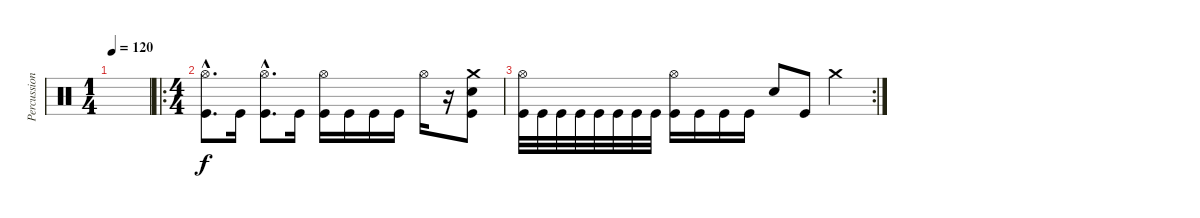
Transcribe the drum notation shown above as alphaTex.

\track ("Percussion" "Percussion") {instrument percussion}
\staff {score}
\articulation defaults
\ts (1 4)
\tempo 120
\clef neutral
\ks c
|
\ro
\ts (4 4)
("Hi-Hat (open)"{hac} "Kick (hit)"{hac}).8{d} "Kick (hit)".16 ("Hi-Hat (open)"{hac} "Kick (hit)"{hac}).8{d} "Kick (hit)".16 ("Hi-Hat (open)" "Kick (hit)").16 "Kick (hit)".16 "Kick (hit)".16 "Kick (hit)".16 "Hi-Hat (open)".16 r.16 ("Crash medium (hit)" "Snare (hit) 2" "Kick (hit)").8 |
\rc 2
("Hi-Hat (open)" "Kick (hit)").32 "Kick (hit)".32 "Kick (hit)".32 "Kick (hit)".32 "Kick (hit)".32 "Kick (hit)".32 "Kick (hit)".32 "Kick (hit)".32 ("Hi-Hat (open)" "Kick (hit)").16 "Kick (hit)".16 "Kick (hit)".16 "Kick (hit)".16 "Snare (hit) 2".8 "Kick (hit)".8 "Crash medium (hit)".4
